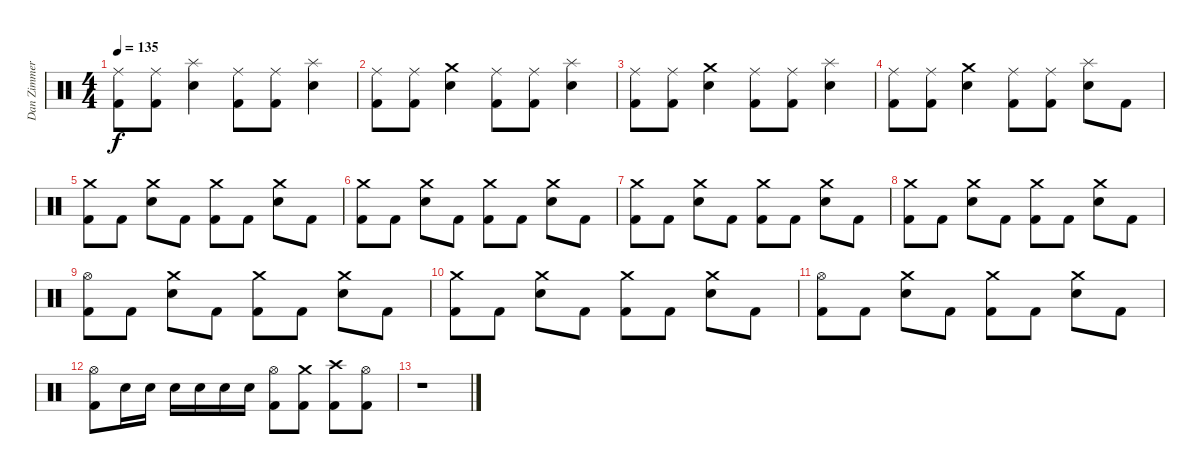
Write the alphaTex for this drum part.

\track ("Dan Zimmermann" "Dan Zimmer") {instrument percussion}
\staff {score}
\articulation defaults
\ts (4 4)
\tempo 135
\clef neutral
\ks c
("Ride (middle)" "Kick (hit) 2").8{dy f} ("Ride (middle)" "Kick (hit) 2").8 ("Splash (hit)" "Electric Snare (hit)").4 ("Ride (middle)" "Kick (hit) 2").8 ("Ride (middle)" "Kick (hit) 2").8 ("Splash (hit)" "Electric Snare (hit)").4 |
("Ride (middle)" "Kick (hit) 2").8 ("Ride (middle)" "Kick (hit) 2").8 ("Crash medium (hit)" "Electric Snare (hit)").4 ("Ride (middle)" "Kick (hit) 2").8 ("Ride (middle)" "Kick (hit) 2").8 ("Splash (hit)" "Electric Snare (hit)").4 |
("Ride (middle)" "Kick (hit) 2").8 ("Ride (middle)" "Kick (hit) 2").8 ("Crash medium (hit)" "Electric Snare (hit)").4 ("Ride (middle)" "Kick (hit) 2").8 ("Ride (middle)" "Kick (hit) 2").8 ("Splash (hit)" "Electric Snare (hit)").4 |
("Ride (middle)" "Kick (hit) 2").8 ("Ride (middle)" "Kick (hit) 2").8 ("Crash medium (hit)" "Electric Snare (hit)").4 ("Ride (middle)" "Kick (hit) 2").8 ("Ride (middle)" "Kick (hit) 2").8 ("Splash (hit)" "Electric Snare (hit)").8 "Kick (hit) 2".8 |
("Crash medium (hit)" "Kick (hit) 2").8 "Kick (hit) 2".8 ("Crash medium (hit)" "Electric Snare (hit)").8 "Kick (hit) 2".8 ("Crash medium (hit)" "Kick (hit) 2").8 "Kick (hit) 2".8 ("Crash medium (hit)" "Electric Snare (hit)").8 "Kick (hit) 2".8 |
("Crash medium (hit)" "Kick (hit) 2").8 "Kick (hit) 2".8 ("Crash medium (hit)" "Electric Snare (hit)").8 "Kick (hit) 2".8 ("Crash medium (hit)" "Kick (hit) 2").8 "Kick (hit) 2".8 ("Crash medium (hit)" "Electric Snare (hit)").8 "Kick (hit) 2".8 |
("Crash medium (hit)" "Kick (hit) 2").8 "Kick (hit) 2".8 ("Crash medium (hit)" "Electric Snare (hit)").8 "Kick (hit) 2".8 ("Crash medium (hit)" "Kick (hit) 2").8 "Kick (hit) 2".8 ("Crash medium (hit)" "Electric Snare (hit)").8 "Kick (hit) 2".8 |
("Crash medium (hit)" "Kick (hit) 2").8 "Kick (hit) 2".8 ("Crash medium (hit)" "Electric Snare (hit)").8 "Kick (hit) 2".8 ("Crash medium (hit)" "Kick (hit) 2").8 "Kick (hit) 2".8 ("Crash medium (hit)" "Electric Snare (hit)").8 "Kick (hit) 2".8 |
("Hi-Hat (open)" "Kick (hit) 2").8 "Kick (hit) 2".8 ("Crash medium (hit)" "Electric Snare (hit)").8 "Kick (hit) 2".8 ("Crash medium (hit)" "Kick (hit) 2").8 "Kick (hit) 2".8 ("Crash medium (hit)" "Electric Snare (hit)").8 "Kick (hit) 2".8 |
("Crash medium (hit)" "Kick (hit) 2").8 "Kick (hit) 2".8 ("Crash medium (hit)" "Electric Snare (hit)").8 "Kick (hit) 2".8 ("Crash medium (hit)" "Kick (hit) 2").8 "Kick (hit) 2".8 ("Crash medium (hit)" "Electric Snare (hit)").8 "Kick (hit) 2".8 |
("Hi-Hat (open)" "Kick (hit) 2").8 "Kick (hit) 2".8 ("Crash medium (hit)" "Electric Snare (hit)").8 "Kick (hit) 2".8 ("Crash medium (hit)" "Kick (hit) 2").8 "Kick (hit) 2".8 ("Crash medium (hit)" "Electric Snare (hit)").8 "Kick (hit) 2".8 |
("Hi-Hat (open)" "Kick (hit) 2").8 "Electric Snare (hit)".16 "Electric Snare (hit)".16 "Electric Snare (hit)".16 "Electric Snare (hit)".16 "Electric Snare (hit)".16 "Electric Snare (hit)".16 ("Hi-Hat (open)" "Kick (hit) 2").8 ("Crash medium (hit)" "Kick (hit) 2").8 ("Crash high (hit)" "Kick (hit) 2").8 ("Hi-Hat (open)" "Kick (hit) 2").8 |
r.1
